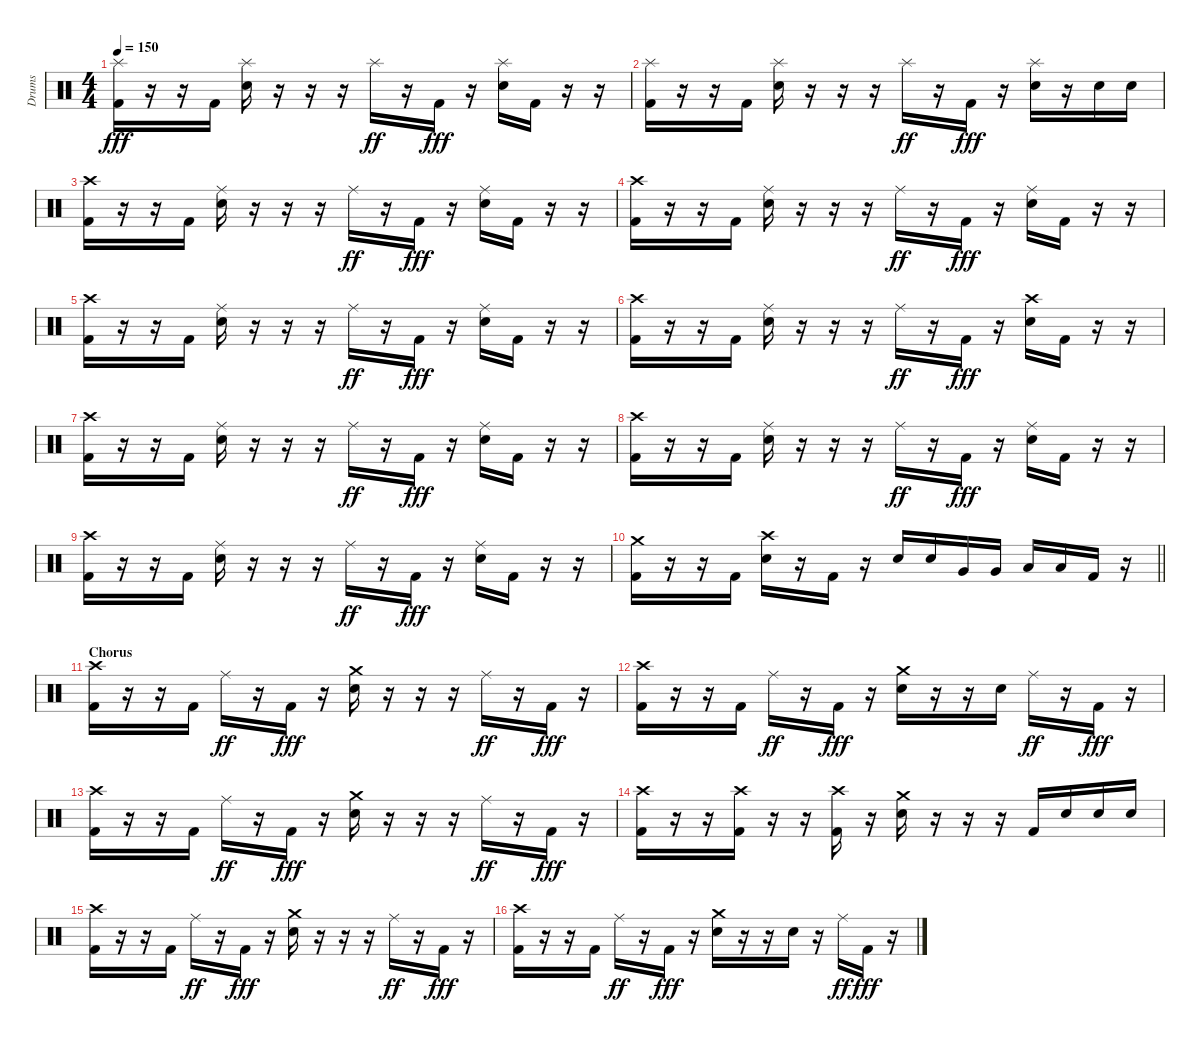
\track ("Drums" "Drums") {instrument percussion}
\staff {score}
\articulation defaults
\ts (4 4)
\tempo 150
\clef neutral
\ks c
("Splash (hit)" "Kick (hit) 2").16{dy fff} r.16 r.16 "Kick (hit) 2".16 ("Splash (hit)" "Electric Snare (hit)").16 r.16 r.16 r.16 "Splash (hit)".16{dy ff} r.16 "Kick (hit) 2".16{dy fff} r.16 ("Splash (hit)" "Electric Snare (hit)").16 "Kick (hit) 2".16 r.16 r.16 |
("Splash (hit)" "Kick (hit) 2").16 r.16 r.16 "Kick (hit) 2".16 ("Splash (hit)" "Electric Snare (hit)").16 r.16 r.16 r.16 "Splash (hit)".16{dy ff} r.16 "Kick (hit) 2".16{dy fff} r.16 ("Splash (hit)" "Electric Snare (hit)").16 r.16 "Electric Snare (hit)".16 "Electric Snare (hit)".16 |
("Crash high (hit)" "Kick (hit) 2").16 r.16 r.16 "Kick (hit) 2".16 ("Ride (middle)" "Electric Snare (hit)").16 r.16 r.16 r.16 "Ride (middle)".16{dy ff} r.16 "Kick (hit) 2".16{dy fff} r.16 ("Ride (middle)" "Electric Snare (hit)").16 "Kick (hit) 2".16 r.16 r.16 |
("Crash high (hit)" "Kick (hit) 2").16 r.16 r.16 "Kick (hit) 2".16 ("Ride (middle)" "Electric Snare (hit)").16 r.16 r.16 r.16 "Ride (middle)".16{dy ff} r.16 "Kick (hit) 2".16{dy fff} r.16 ("Ride (middle)" "Electric Snare (hit)").16 "Kick (hit) 2".16 r.16 r.16 |
("Crash high (hit)" "Kick (hit) 2").16 r.16 r.16 "Kick (hit) 2".16 ("Ride (middle)" "Electric Snare (hit)").16 r.16 r.16 r.16 "Ride (middle)".16{dy ff} r.16 "Kick (hit) 2".16{dy fff} r.16 ("Ride (middle)" "Electric Snare (hit)").16 "Kick (hit) 2".16 r.16 r.16 |
("Crash high (hit)" "Kick (hit) 2").16 r.16 r.16 "Kick (hit) 2".16 ("Ride (middle)" "Electric Snare (hit)").16 r.16 r.16 r.16 "Ride (middle)".16{dy ff} r.16 "Kick (hit) 2".16{dy fff} r.16 ("Crash high (hit)" "Electric Snare (hit)").16 "Kick (hit) 2".16 r.16 r.16 |
("Crash high (hit)" "Kick (hit) 2").16 r.16 r.16 "Kick (hit) 2".16 ("Ride (middle)" "Electric Snare (hit)").16 r.16 r.16 r.16 "Ride (middle)".16{dy ff} r.16 "Kick (hit) 2".16{dy fff} r.16 ("Ride (middle)" "Electric Snare (hit)").16 "Kick (hit) 2".16 r.16 r.16 |
("Crash high (hit)" "Kick (hit) 2").16 r.16 r.16 "Kick (hit) 2".16 ("Ride (middle)" "Electric Snare (hit)").16 r.16 r.16 r.16 "Ride (middle)".16{dy ff} r.16 "Kick (hit) 2".16{dy fff} r.16 ("Ride (middle)" "Electric Snare (hit)").16 "Kick (hit) 2".16 r.16 r.16 |
("Crash high (hit)" "Kick (hit) 2").16 r.16 r.16 "Kick (hit) 2".16 ("Ride (middle)" "Electric Snare (hit)").16 r.16 r.16 r.16 "Ride (middle)".16{dy ff} r.16 "Kick (hit) 2".16{dy fff} r.16 ("Ride (middle)" "Electric Snare (hit)").16 "Kick (hit) 2".16 r.16 r.16 |
\barLineRight lightlight
("Crash medium (hit)" "Kick (hit) 2").16 r.16 r.16 "Kick (hit) 2".16 ("Crash high (hit)" "Electric Snare (hit)").16 r.16 "Kick (hit) 2".16 r.16 "Electric Snare (hit)".16 "Electric Snare (hit)".16 "Very Low Tom (hit)".16 "Very Low Tom (hit)".16 "Low Floor Tom (hit)".16 "Low Floor Tom (hit)".16 "Kick (hit) 2".16 r.16 |
\section ("" "Chorus")
("Crash high (hit)" "Kick (hit) 2").16 r.16 r.16 "Kick (hit) 2".16 "Ride (middle)".16{dy ff} r.16 "Kick (hit) 2".16{dy fff} r.16 ("Crash medium (hit)" "Electric Snare (hit)").16 r.16 r.16 r.16 "Ride (middle)".16{dy ff} r.16 "Kick (hit) 2".16{dy fff} r.16 |
("Crash high (hit)" "Kick (hit) 2").16 r.16 r.16 "Kick (hit) 2".16 "Ride (middle)".16{dy ff} r.16 "Kick (hit) 2".16{dy fff} r.16 ("Crash medium (hit)" "Electric Snare (hit)").16 r.16 r.16 "Electric Snare (hit)".16 "Ride (middle)".16{dy ff} r.16 "Kick (hit) 2".16{dy fff} r.16 |
("Crash high (hit)" "Kick (hit) 2").16 r.16 r.16 "Kick (hit) 2".16 "Ride (middle)".16{dy ff} r.16 "Kick (hit) 2".16{dy fff} r.16 ("Crash medium (hit)" "Electric Snare (hit)").16 r.16 r.16 r.16 "Ride (middle)".16{dy ff} r.16 "Kick (hit) 2".16{dy fff} r.16 |
("Crash high (hit)" "Kick (hit) 2").16 r.16 r.16 ("Crash high (hit)" "Kick (hit) 2").16 r.16 r.16 ("Crash high (hit)" "Kick (hit) 2").16 r.16 ("Crash medium (hit)" "Electric Snare (hit)").16 r.16 r.16 r.16 "Kick (hit) 2".16 "Electric Snare (hit)".16 "Electric Snare (hit)".16 "Electric Snare (hit)".16 |
("Crash high (hit)" "Kick (hit) 2").16 r.16 r.16 "Kick (hit) 2".16 "Ride (middle)".16{dy ff} r.16 "Kick (hit) 2".16{dy fff} r.16 ("Crash medium (hit)" "Electric Snare (hit)").16 r.16 r.16 r.16 "Ride (middle)".16{dy ff} r.16 "Kick (hit) 2".16{dy fff} r.16 |
("Crash high (hit)" "Kick (hit) 2").16 r.16 r.16 "Kick (hit) 2".16 "Ride (middle)".16{dy ff} r.16 "Kick (hit) 2".16{dy fff} r.16 ("Crash medium (hit)" "Electric Snare (hit)").16 r.16 r.16 "Electric Snare (hit)".16 r.16 "Ride (middle)".16{dy ff} "Kick (hit) 2".16{dy fff} r.16
